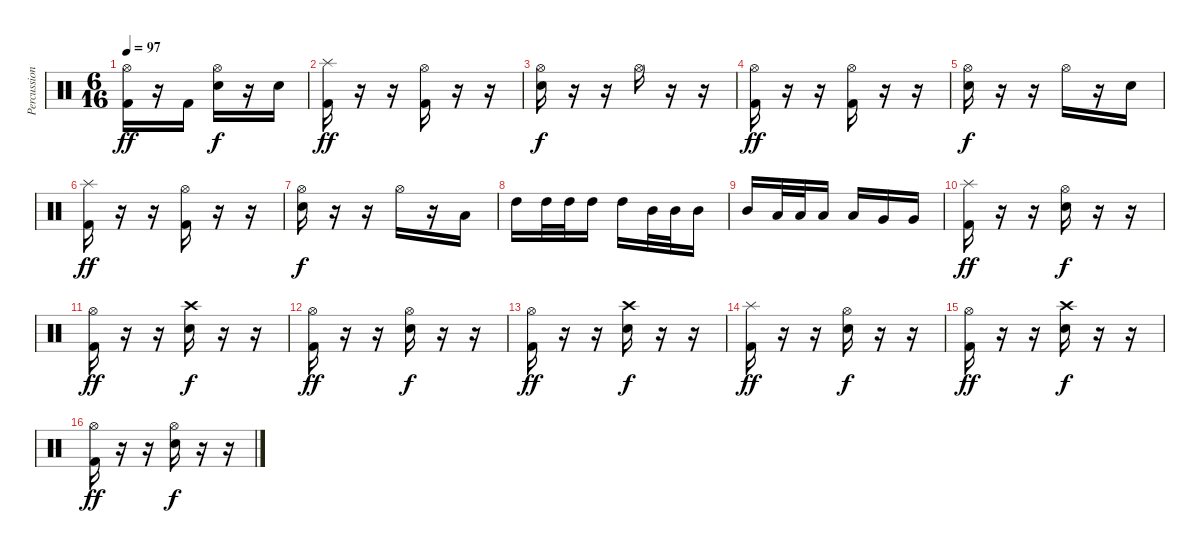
\track ("Percussion" "Percussion") {instrument percussion}
\staff {score}
\articulation defaults
\ts (6 16)
\tempo 97
\clef neutral
\ks c
("Hi-Hat (open)" "Kick (hit) 2").16{dy ff} r.16 "Kick (hit) 2".16 ("Hi-Hat (open)" "Electric Snare (hit)").16{dy f} r.16 "Electric Snare (hit)".16 |
("Splash (hit)" "Kick (hit) 2").16{dy ff} r.16 r.16 ("Hi-Hat (open)" "Kick (hit) 2").16 r.16 r.16 |
("Hi-Hat (open)" "Electric Snare (hit)").16{dy f} r.16 r.16 "Hi-Hat (open)".16 r.16 r.16 |
("Hi-Hat (open)" "Kick (hit) 2").16{dy ff} r.16 r.16 ("Hi-Hat (open)" "Kick (hit) 2").16 r.16 r.16 |
("Hi-Hat (open)" "Electric Snare (hit)").16{dy f} r.16 r.16 "Hi-Hat (open)".16 r.16 "Electric Snare (hit)".16 |
("Splash (hit)" "Kick (hit) 2").16{dy ff} r.16 r.16 ("Hi-Hat (open)" "Kick (hit) 2").16 r.16 r.16 |
("Hi-Hat (open)" "Electric Snare (hit)").16{dy f} r.16 r.16 "Hi-Hat (open)".16 r.16 "Low Tom (hit)".16 |
"High Tom (hit)".16 "High Tom (hit)".32 "High Tom (hit)".32 "High Tom (hit)".16 "High Tom (hit)".16 "Mid Tom (hit)".32 "Mid Tom (hit)".32 "Mid Tom (hit)".16 |
"Mid Tom (hit)".16 "Low Tom (hit)".32 "Low Tom (hit)".32 "Low Tom (hit)".16 "Low Tom (hit)".16 "Very Low Tom (hit)".16 "Very Low Tom (hit)".16 |
("Splash (hit)" "Kick (hit) 2").16{dy ff} r.16 r.16 ("Hi-Hat (open)" "Electric Snare (hit)").16{dy f} r.16 r.16 |
("Hi-Hat (open)" "Kick (hit) 2").16{dy ff} r.16 r.16 ("Crash high (hit)" "Electric Snare (hit)").16{dy f} r.16 r.16 |
("Hi-Hat (open)" "Kick (hit) 2").16{dy ff} r.16 r.16 ("Hi-Hat (open)" "Electric Snare (hit)").16{dy f} r.16 r.16 |
("Hi-Hat (open)" "Kick (hit) 2").16{dy ff} r.16 r.16 ("Crash high (hit)" "Electric Snare (hit)").16{dy f} r.16 r.16 |
("Splash (hit)" "Kick (hit) 2").16{dy ff} r.16 r.16 ("Hi-Hat (open)" "Electric Snare (hit)").16{dy f} r.16 r.16 |
("Hi-Hat (open)" "Kick (hit) 2").16{dy ff} r.16 r.16 ("Crash high (hit)" "Electric Snare (hit)").16{dy f} r.16 r.16 |
("Hi-Hat (open)" "Kick (hit) 2").16{dy ff} r.16 r.16 ("Hi-Hat (open)" "Electric Snare (hit)").16{dy f} r.16 r.16
